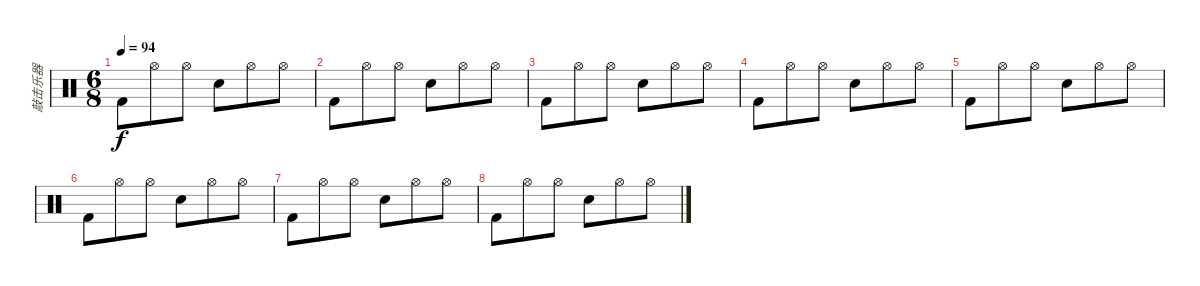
\track ("敲击乐器" "敲击乐器") {instrument percussion}
\staff {score}
\articulation defaults
\ts (6 8)
\tempo 94
\clef neutral
\ks c "Kick (hit) 2".8{dy f} "Hi-Hat (open)".8 "Hi-Hat (open)".8 "Electric Snare (hit)".8 "Hi-Hat (open)".8 "Hi-Hat (open)".8
|
"Kick (hit) 2".8 "Hi-Hat (open)".8 "Hi-Hat (open)".8 "Electric Snare (hit)".8 "Hi-Hat (open)".8 "Hi-Hat (open)".8 |
"Kick (hit) 2".8 "Hi-Hat (open)".8 "Hi-Hat (open)".8 "Electric Snare (hit)".8 "Hi-Hat (open)".8 "Hi-Hat (open)".8 |
"Kick (hit) 2".8 "Hi-Hat (open)".8 "Hi-Hat (open)".8 "Electric Snare (hit)".8 "Hi-Hat (open)".8 "Hi-Hat (open)".8 |
"Kick (hit) 2".8 "Hi-Hat (open)".8 "Hi-Hat (open)".8 "Electric Snare (hit)".8 "Hi-Hat (open)".8 "Hi-Hat (open)".8 |
"Kick (hit) 2".8 "Hi-Hat (open)".8 "Hi-Hat (open)".8 "Electric Snare (hit)".8 "Hi-Hat (open)".8 "Hi-Hat (open)".8 |
"Kick (hit) 2".8 "Hi-Hat (open)".8 "Hi-Hat (open)".8 "Electric Snare (hit)".8 "Hi-Hat (open)".8 "Hi-Hat (open)".8 |
"Kick (hit) 2".8 "Hi-Hat (open)".8 "Hi-Hat (open)".8 "Electric Snare (hit)".8 "Hi-Hat (open)".8 "Hi-Hat (open)".8
